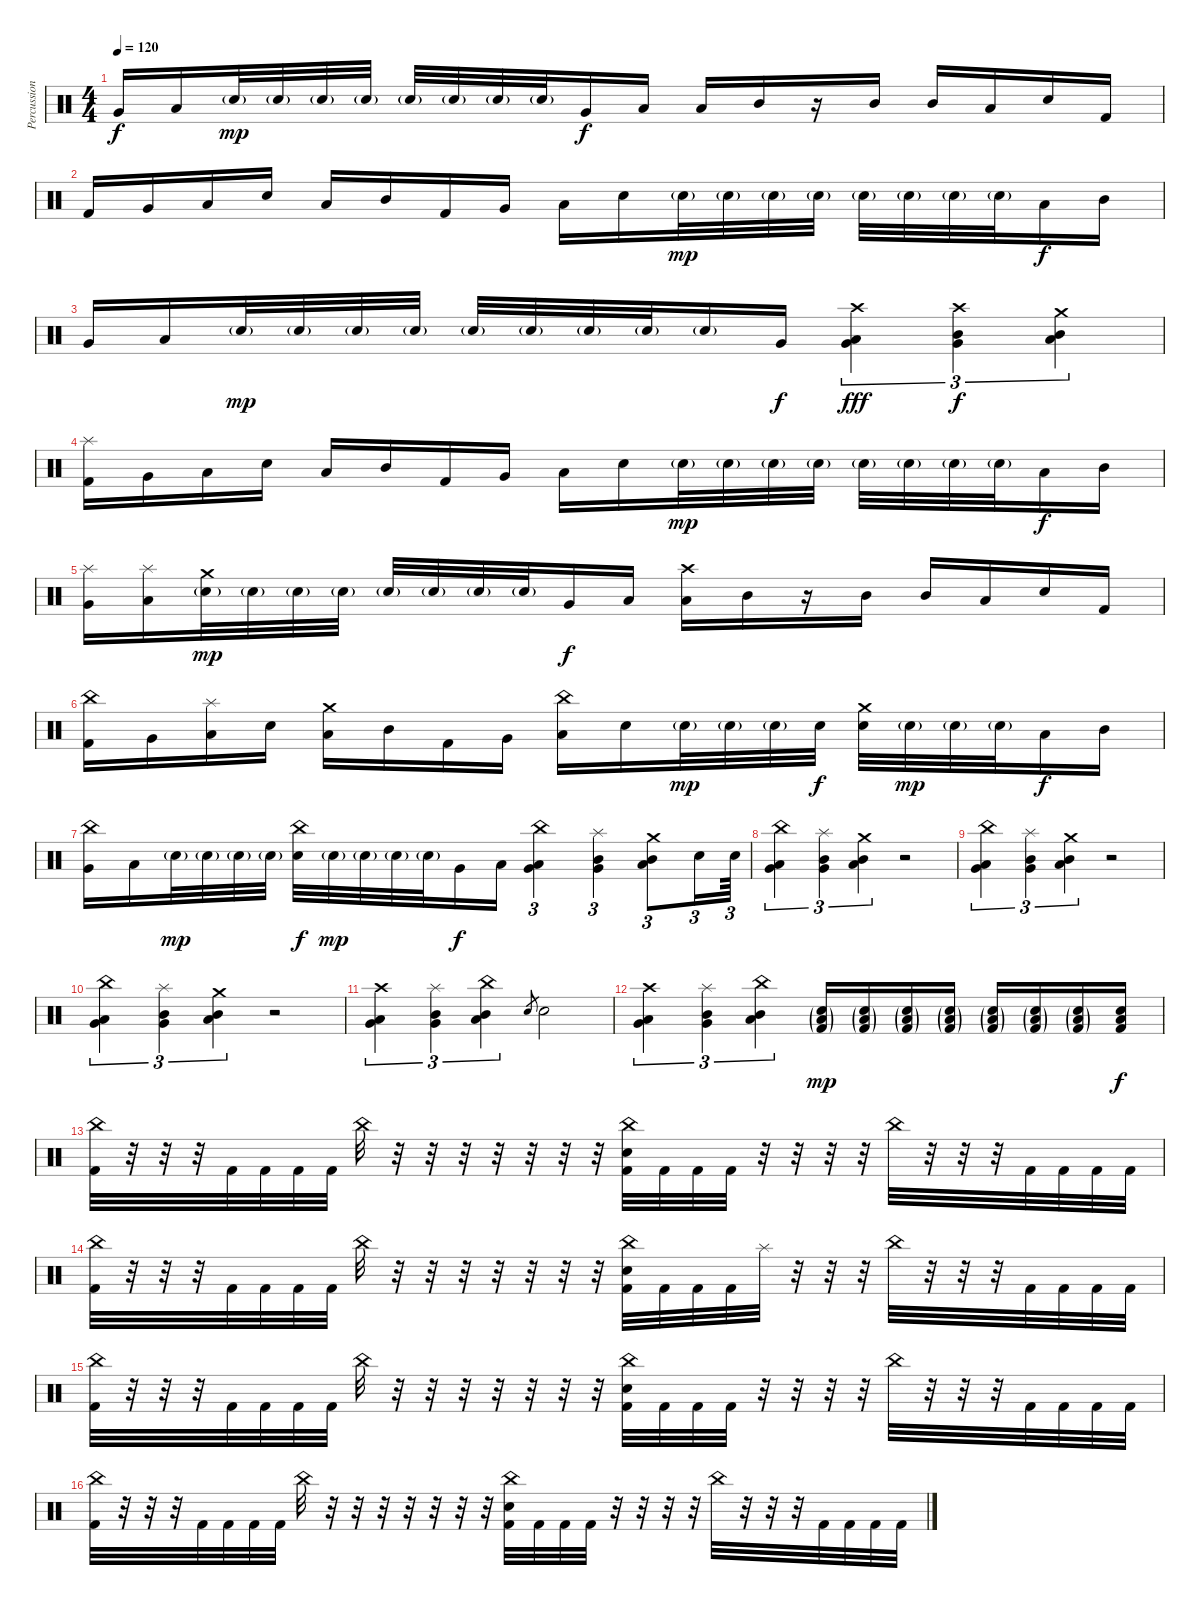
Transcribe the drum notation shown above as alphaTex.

\track ("Percussion" "Percussion") {instrument percussion}
\staff {score}
\articulation defaults
\ts (4 4)
\tempo 120
\clef neutral
\ks c "Very Low Tom (hit)".16{dy f} "Low Floor Tom (hit)".16 "Electric Snare (hit)"{g}.32{dy mp} "Electric Snare (hit)"{g}.32 "Electric Snare (hit)"{g}.32 "Electric Snare (hit)"{g}.32 "Electric Snare (hit)"{g}.32 "Electric Snare (hit)"{g}.32 "Electric Snare (hit)"{g}.32 "Electric Snare (hit)"{g}.32 "Very Low Tom (hit)".16{dy f} "Low Floor Tom (hit)".16 "Low Tom (hit)".16 "Mid Tom (hit)".16
r.16 "Mid Tom (hit)".16 "Mid Tom (hit)".16 "Low Tom (hit)".16 "Electric Snare (hit)".16 "Kick (hit) 2".16 |
"Kick (hit) 2".16 "Very Low Tom (hit)".16 "Low Floor Tom (hit)".16 "Electric Snare (hit)".16 "Low Tom (hit)".16 "Mid Tom (hit)".16 "Kick (hit) 2".16 "Very Low Tom (hit)".16 "Low Floor Tom (hit)".16 "Electric Snare (hit)".16 "Electric Snare (hit)"{g}.32{dy mp} "Electric Snare (hit)"{g}.32 "Electric Snare (hit)"{g}.32 "Electric Snare (hit)"{g}.32 "Electric Snare (hit)"{g}.32 "Electric Snare (hit)"{g}.32 "Electric Snare (hit)"{g}.32 "Electric Snare (hit)"{g}.32 "Low Tom (hit)".16{dy f} "Mid Tom (hit)".16 |
"Very Low Tom (hit)".16 "Low Floor Tom (hit)".16 "Electric Snare (hit)"{g}.32{dy mp} "Electric Snare (hit)"{g}.32 "Electric Snare (hit)"{g}.32 "Electric Snare (hit)"{g}.32 "Electric Snare (hit)"{g}.32 "Electric Snare (hit)"{g}.32 "Electric Snare (hit)"{g}.32 "Electric Snare (hit)"{g}.32 "Electric Snare (hit)"{g}.16 "Very Low Tom (hit)".16{dy f} ("Crash high (hit)" "Low Floor Tom (hit)" "Very Low Tom (hit)").4{tu (3 2) dy fff} ("Crash high (hit)" "Mid Tom (hit)" "Very Low Tom (hit)").4{tu (3 2) dy f} ("Crash medium (hit)" "Mid Tom (hit)" "Low Tom (hit)").4{tu (3 2)} |
("Splash (hit)" "Kick (hit) 2").16 "Very Low Tom (hit)".16 "Low Floor Tom (hit)".16 "Electric Snare (hit)".16 "Low Tom (hit)".16 "Mid Tom (hit)".16 "Kick (hit) 2".16 "Very Low Tom (hit)".16 "Low Floor Tom (hit)".16 "Electric Snare (hit)".16 "Electric Snare (hit)"{g}.32{dy mp} "Electric Snare (hit)"{g}.32 "Electric Snare (hit)"{g}.32 "Electric Snare (hit)"{g}.32 "Electric Snare (hit)"{g}.32 "Electric Snare (hit)"{g}.32 "Electric Snare (hit)"{g}.32 "Electric Snare (hit)"{g}.32 "Low Tom (hit)".16{dy f} "Mid Tom (hit)".16 |
("Splash (hit)" "Very Low Tom (hit)").16 ("Splash (hit)" "Low Floor Tom (hit)").16 ("Crash medium (hit)" "Electric Snare (hit)"{g}).32{dy mp} "Electric Snare (hit)"{g}.32 "Electric Snare (hit)"{g}.32 "Electric Snare (hit)"{g}.32 "Electric Snare (hit)"{g}.32 "Electric Snare (hit)"{g}.32 "Electric Snare (hit)"{g}.32 "Electric Snare (hit)"{g}.32 "Very Low Tom (hit)".16{dy f} "Low Floor Tom (hit)".16 ("Crash high (hit)" "Low Tom (hit)").16 "Mid Tom (hit)".16 r.16 "Mid Tom (hit)".16 "Mid Tom (hit)".16 "Low Tom (hit)".16 "Electric Snare (hit)".16 "Kick (hit) 2".16 |
("China (hit)" "Kick (hit) 2").16 "Very Low Tom (hit)".16 ("Splash (hit)" "Low Floor Tom (hit)").16 "Electric Snare (hit)".16 ("Crash medium (hit)" "Low Tom (hit)").16 "Mid Tom (hit)".16 "Kick (hit) 2".16 "Very Low Tom (hit)".16 ("China (hit)" "Low Floor Tom (hit)").16 "Electric Snare (hit)".16 "Electric Snare (hit)"{g}.32{dy mp} "Electric Snare (hit)"{g}.32 "Electric Snare (hit)"{g}.32 "Electric Snare (hit)".32{dy f} ("Crash medium (hit)" "Electric Snare (hit)").32 "Electric Snare (hit)"{g}.32{dy mp} "Electric Snare (hit)"{g}.32 "Electric Snare (hit)"{g}.32 "Low Tom (hit)".16{dy f} "Mid Tom (hit)".16 |
("China (hit)" "Very Low Tom (hit)").16 "Low Floor Tom (hit)".16 "Electric Snare (hit)"{g}.32{dy mp} "Electric Snare (hit)"{g}.32 "Electric Snare (hit)"{g}.32 "Electric Snare (hit)"{g}.32 ("China (hit)" "Electric Snare (hit)").32{dy f} "Electric Snare (hit)"{g}.32{dy mp} "Electric Snare (hit)"{g}.32 "Electric Snare (hit)"{g}.32 "Electric Snare (hit)"{g}.32 "Very Low Tom (hit)".16{dy f} "Low Floor Tom (hit)".16 ("China (hit)" "Very Low Tom (hit)" "Low Floor Tom (hit)").4{tu (3 2)} ("Splash (hit)" "Very Low Tom (hit)" "Mid Tom (hit)").4{tu (3 2)} ("Crash medium (hit)" "Mid Tom (hit)" "Low Tom (hit)").8{tu (3 2)} "Electric Snare (hit)".16{tu (3 2)} "Electric Snare (hit)".64{tu (3 2)} |
("China (hit)" "Very Low Tom (hit)" "Low Floor Tom (hit)").4{tu (3 2)} ("Splash (hit)" "Very Low Tom (hit)" "Mid Tom (hit)").4{tu (3 2)} ("Crash medium (hit)" "Mid Tom (hit)" "Low Tom (hit)").4{tu (3 2)} r.2 |
("China (hit)" "Very Low Tom (hit)" "Low Floor Tom (hit)").4{tu (3 2)} ("Splash (hit)" "Very Low Tom (hit)" "Mid Tom (hit)").4{tu (3 2)} ("Crash medium (hit)" "Mid Tom (hit)" "Low Tom (hit)").4{tu (3 2)} r.2 |
("China (hit)" "Very Low Tom (hit)" "Low Floor Tom (hit)").4{tu (3 2)} ("Splash (hit)" "Very Low Tom (hit)" "Mid Tom (hit)").4{tu (3 2)} ("Crash medium (hit)" "Mid Tom (hit)" "Low Tom (hit)").4{tu (3 2)} r.2 |
("Crash high (hit)" "Very Low Tom (hit)" "Low Floor Tom (hit)").4{tu (3 2)} ("Splash (hit)" "Very Low Tom (hit)" "Mid Tom (hit)").4{tu (3 2)} ("China (hit)" "Mid Tom (hit)" "Low Tom (hit)").4{tu (3 2)} "Snare (hit) 2".8{gr} "Snare (hit) 2".2 |
("Crash high (hit)" "Very Low Tom (hit)" "Low Floor Tom (hit)").4{tu (3 2)} ("Splash (hit)" "Very Low Tom (hit)" "Mid Tom (hit)").4{tu (3 2)} ("China (hit)" "Mid Tom (hit)" "Low Tom (hit)").4{tu (3 2)} ("Low Floor Tom (hit)"{g} "Electric Snare (hit)"{g} "Kick (hit) 2"{g}).16{dy mp} ("Low Floor Tom (hit)"{g} "Electric Snare (hit)"{g} "Kick (hit) 2"{g}).16 ("Low Floor Tom (hit)"{g} "Electric Snare (hit)"{g} "Kick (hit) 2"{g}).16 ("Low Floor Tom (hit)"{g} "Electric Snare (hit)"{g} "Kick (hit) 2"{g}).16 ("Low Floor Tom (hit)"{g} "Electric Snare (hit)"{g} "Kick (hit) 2"{g}).16 ("Low Floor Tom (hit)"{g} "Electric Snare (hit)"{g} "Kick (hit) 2"{g}).16 ("Low Floor Tom (hit)"{g} "Electric Snare (hit)"{g} "Kick (hit) 2"{g}).16 ("Low Floor Tom (hit)" "Electric Snare (hit)" "Kick (hit) 2").16{dy f} |
("China (hit)" "Kick (hit) 2").32 r.32 r.32 r.32 "Kick (hit) 2".32 "Kick (hit) 2".32 "Kick (hit) 2".32 "Kick (hit) 2".32 "China (hit)".32 r.32 r.32 r.32 r.32 r.32 r.32 r.32 ("China (hit)" "Electric Snare (hit)" "Kick (hit) 2").32 "Kick (hit) 2".32 "Kick (hit) 2".32 "Kick (hit) 2".32 r.32 r.32 r.32 r.32 "China (hit)".32 r.32 r.32 r.32 "Kick (hit) 2".32 "Kick (hit) 2".32 "Kick (hit) 2".32 "Kick (hit) 2".32 |
("China (hit)" "Kick (hit) 2").32 r.32 r.32 r.32 "Kick (hit) 2".32 "Kick (hit) 2".32 "Kick (hit) 2".32 "Kick (hit) 2".32 "China (hit)".32 r.32 r.32 r.32 r.32 r.32 r.32 r.32 ("China (hit)" "Electric Snare (hit)" "Kick (hit) 2").32 "Kick (hit) 2".32 "Kick (hit) 2".32 "Kick (hit) 2".32 "Splash (hit)".32 r.32 r.32 r.32 "China (hit)".32 r.32 r.32 r.32 "Kick (hit) 2".32 "Kick (hit) 2".32 "Kick (hit) 2".32 "Kick (hit) 2".32 |
("China (hit)" "Kick (hit) 2").32 r.32 r.32 r.32 "Kick (hit) 2".32 "Kick (hit) 2".32 "Kick (hit) 2".32 "Kick (hit) 2".32 "China (hit)".32 r.32 r.32 r.32 r.32 r.32 r.32 r.32 ("China (hit)" "Electric Snare (hit)" "Kick (hit) 2").32 "Kick (hit) 2".32 "Kick (hit) 2".32 "Kick (hit) 2".32 r.32 r.32 r.32 r.32 "China (hit)".32 r.32 r.32 r.32 "Kick (hit) 2".32 "Kick (hit) 2".32 "Kick (hit) 2".32 "Kick (hit) 2".32 |
("China (hit)" "Kick (hit) 2").32 r.32 r.32 r.32 "Kick (hit) 2".32 "Kick (hit) 2".32 "Kick (hit) 2".32 "Kick (hit) 2".32 "China (hit)".32 r.32 r.32 r.32 r.32 r.32 r.32 r.32 ("China (hit)" "Electric Snare (hit)" "Kick (hit) 2").32 "Kick (hit) 2".32 "Kick (hit) 2".32 "Kick (hit) 2".32 r.32 r.32 r.32 r.32 "China (hit)".32 r.32 r.32 r.32 "Kick (hit) 2".32 "Kick (hit) 2".32 "Kick (hit) 2".32 "Kick (hit) 2".32
